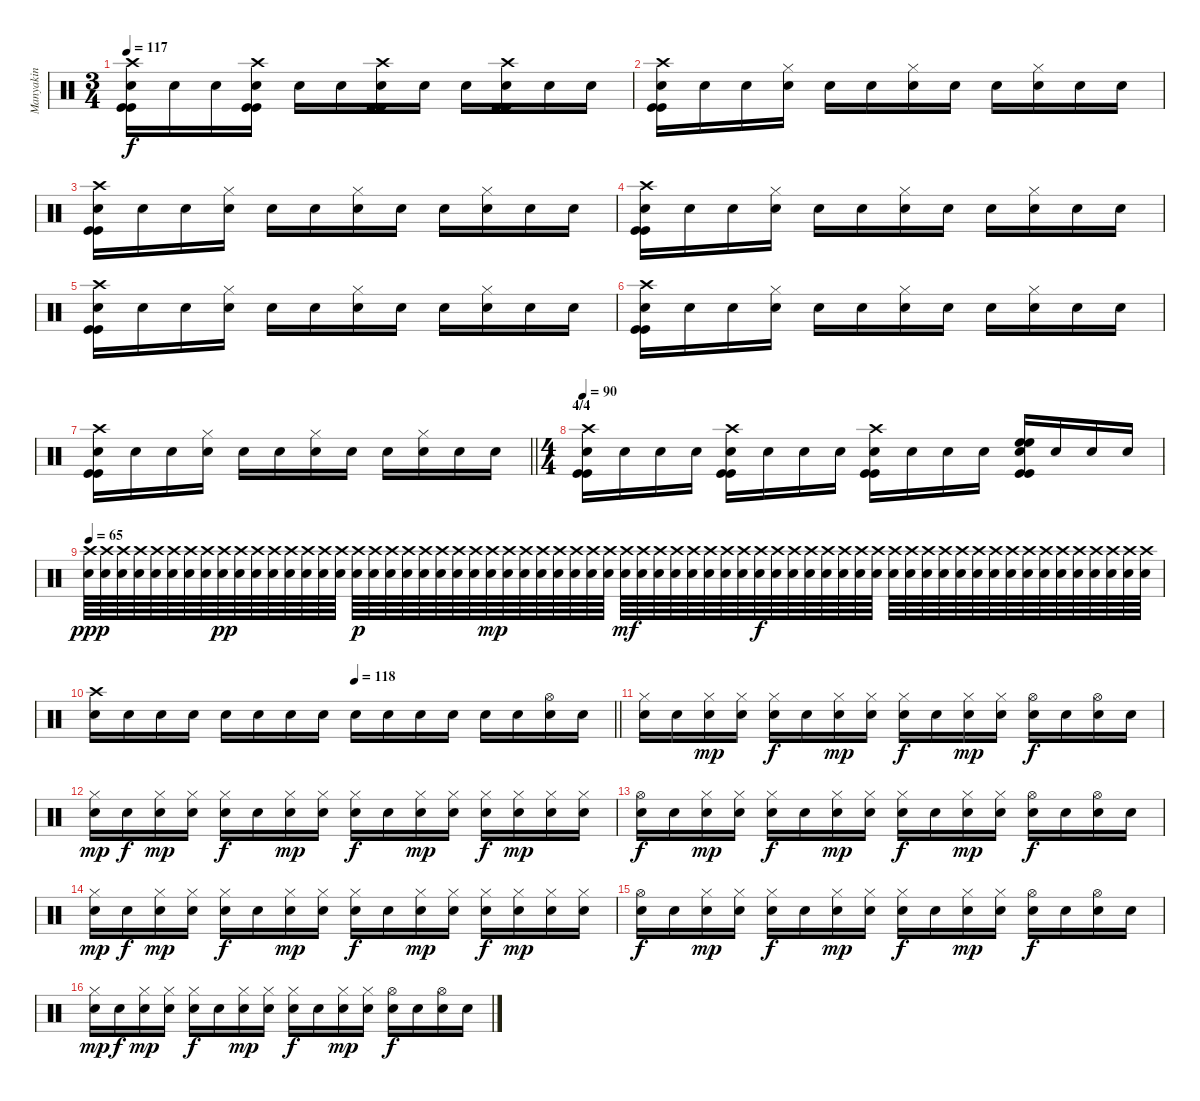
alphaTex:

\track ("Manyakin" "Manyakin") {instrument percussion}
\staff {score}
\articulation defaults
\ts (3 4)
\tempo 117
\clef neutral
\ks c
("Crash high (hit)" "Kick (hit)" "Kick (hit)" "Snare (hit)"{x}).16{dy f} "Snare (hit)"{x}.16 "Snare (hit)"{x}.16 ("Crash high (hit)" "Kick (hit)" "Kick (hit)" "Snare (hit)"{x}).16 "Snare (hit)"{x}.16 "Snare (hit)"{x}.16 ("Crash high (hit)" "Kick (hit)" "Kick (hit)" "Snare (hit)"{x}).16 "Snare (hit)"{x}.16 "Snare (hit)"{x}.16 ("Crash high (hit)" "Kick (hit)" "Kick (hit)" "Snare (hit)"{x}).16 "Snare (hit)"{x}.16 "Snare (hit)"{x}.16 |
("Crash high (hit)" "Kick (hit)" "Kick (hit)" "Snare (hit)"{x}).16 "Snare (hit)"{x}.16 "Snare (hit)"{x}.16 ("Hi-Hat (closed)" "Snare (hit)"{x}).16 "Snare (hit)"{x}.16 "Snare (hit)"{x}.16 ("Hi-Hat (closed)" "Snare (hit)"{x}).16 "Snare (hit)"{x}.16 "Snare (hit)"{x}.16 ("Hi-Hat (closed)" "Snare (hit)"{x}).16 "Snare (hit)"{x}.16 "Snare (hit)"{x}.16 |
("Crash high (hit)" "Kick (hit)" "Kick (hit)" "Snare (hit)"{x}).16 "Snare (hit)"{x}.16 "Snare (hit)"{x}.16 ("Hi-Hat (closed)" "Snare (hit)"{x}).16 "Snare (hit)"{x}.16 "Snare (hit)"{x}.16 ("Hi-Hat (closed)" "Snare (hit)"{x}).16 "Snare (hit)"{x}.16 "Snare (hit)"{x}.16 ("Hi-Hat (closed)" "Snare (hit)"{x}).16 "Snare (hit)"{x}.16 "Snare (hit)"{x}.16 |
("Crash high (hit)" "Kick (hit)" "Kick (hit)" "Snare (hit)"{x}).16 "Snare (hit)"{x}.16 "Snare (hit)"{x}.16 ("Hi-Hat (closed)" "Snare (hit)"{x}).16 "Snare (hit)"{x}.16 "Snare (hit)"{x}.16 ("Hi-Hat (closed)" "Snare (hit)"{x}).16 "Snare (hit)"{x}.16 "Snare (hit)"{x}.16 ("Hi-Hat (closed)" "Snare (hit)"{x}).16 "Snare (hit)"{x}.16 "Snare (hit)"{x}.16 |
("Crash high (hit)" "Kick (hit)" "Kick (hit)" "Snare (hit)"{x}).16 "Snare (hit)"{x}.16 "Snare (hit)"{x}.16 ("Hi-Hat (closed)" "Snare (hit)"{x}).16 "Snare (hit)"{x}.16 "Snare (hit)"{x}.16 ("Hi-Hat (closed)" "Snare (hit)"{x}).16 "Snare (hit)"{x}.16 "Snare (hit)"{x}.16 ("Hi-Hat (closed)" "Snare (hit)"{x}).16 "Snare (hit)"{x}.16 "Snare (hit)"{x}.16 |
("Crash high (hit)" "Kick (hit)" "Kick (hit)" "Snare (hit)"{x}).16 "Snare (hit)"{x}.16 "Snare (hit)"{x}.16 ("Hi-Hat (closed)" "Snare (hit)"{x}).16 "Snare (hit)"{x}.16 "Snare (hit)"{x}.16 ("Hi-Hat (closed)" "Snare (hit)"{x}).16 "Snare (hit)"{x}.16 "Snare (hit)"{x}.16 ("Hi-Hat (closed)" "Snare (hit)"{x}).16 "Snare (hit)"{x}.16 "Snare (hit)"{x}.16 |
\barLineRight lightlight
("Crash high (hit)" "Kick (hit)" "Kick (hit)" "Snare (hit)"{x}).16 "Snare (hit)"{x}.16 "Snare (hit)"{x}.16 ("Hi-Hat (closed)" "Snare (hit)"{x}).16 "Snare (hit)"{x}.16 "Snare (hit)"{x}.16 ("Hi-Hat (closed)" "Snare (hit)"{x}).16 "Snare (hit)"{x}.16 "Snare (hit)"{x}.16 ("Hi-Hat (closed)" "Snare (hit)"{x}).16 "Snare (hit)"{x}.16 "Snare (hit)"{x}.16 |
\ts (4 4)
\section ("" "4/4")
\tempo 90
("Crash high (hit)" "Kick (hit)" "Kick (hit)" "Snare (hit)"{x}).16 "Snare (hit)"{x}.16 "Snare (hit)"{x}.16 "Snare (hit)"{x}.16 ("Crash high (hit)" "Kick (hit)" "Kick (hit)" "Snare (hit)"{x}).16 "Snare (hit)"{x}.16 "Snare (hit)"{x}.16 "Snare (hit)"{x}.16 ("Crash high (hit)" "Kick (hit)" "Kick (hit)" "Snare (hit)"{x}).16 "Snare (hit)"{x}.16 "Snare (hit)"{x}.16 "Snare (hit)"{x}.16 ("High Floor Tom (hit)" "High Floor Tom (hit)" "Kick (hit)" "Kick (hit)" "Snare (hit)"{x}).16 "Snare (hit)"{x}.16 "Snare (hit)"{x}.16 "Snare (hit)"{x}.16 |
\tempo 65
("Crash high (hit)" "Snare (hit)"{x}).64{dy ppp} ("Crash high (hit)" "Snare (hit)"{x}).64 ("Crash high (hit)" "Snare (hit)"{x}).64 ("Crash high (hit)" "Snare (hit)"{x}).64 ("Crash high (hit)" "Snare (hit)"{x}).64 ("Crash high (hit)" "Snare (hit)"{x}).64 ("Crash high (hit)" "Snare (hit)"{x}).64 ("Crash high (hit)" "Snare (hit)"{x}).64 ("Crash high (hit)" "Snare (hit)"{x}).64{dy pp} ("Crash high (hit)" "Snare (hit)"{x}).64 ("Crash high (hit)" "Snare (hit)"{x}).64 ("Crash high (hit)" "Snare (hit)"{x}).64 ("Crash high (hit)" "Snare (hit)"{x}).64 ("Crash high (hit)" "Snare (hit)"{x}).64 ("Crash high (hit)" "Snare (hit)"{x}).64 ("Crash high (hit)" "Snare (hit)"{x}).64 ("Crash high (hit)" "Snare (hit)"{x}).64{dy p} ("Crash high (hit)" "Snare (hit)"{x}).64 ("Crash high (hit)" "Snare (hit)"{x}).64 ("Crash high (hit)" "Snare (hit)"{x}).64 ("Crash high (hit)" "Snare (hit)"{x}).64 ("Crash high (hit)" "Snare (hit)"{x}).64 ("Crash high (hit)" "Snare (hit)"{x}).64 ("Crash high (hit)" "Snare (hit)"{x}).64 ("Crash high (hit)" "Snare (hit)"{x}).64{dy mp} ("Crash high (hit)" "Snare (hit)"{x}).64 ("Crash high (hit)" "Snare (hit)"{x}).64 ("Crash high (hit)" "Snare (hit)"{x}).64 ("Crash high (hit)" "Snare (hit)"{x}).64 ("Crash high (hit)" "Snare (hit)"{x}).64 ("Crash high (hit)" "Snare (hit)"{x}).64 ("Crash high (hit)" "Snare (hit)"{x}).64 ("Crash high (hit)" "Snare (hit)"{x}).64{dy mf} ("Crash high (hit)" "Snare (hit)"{x}).64 ("Crash high (hit)" "Snare (hit)"{x}).64 ("Crash high (hit)" "Snare (hit)"{x}).64 ("Crash high (hit)" "Snare (hit)"{x}).64 ("Crash high (hit)" "Snare (hit)"{x}).64 ("Crash high (hit)" "Snare (hit)"{x}).64 ("Crash high (hit)" "Snare (hit)"{x}).64 ("Crash high (hit)" "Snare (hit)"{x}).64{dy f} ("Crash high (hit)" "Snare (hit)"{x}).64 ("Crash high (hit)" "Snare (hit)"{x}).64 ("Crash high (hit)" "Snare (hit)"{x}).64 ("Crash high (hit)" "Snare (hit)"{x}).64 ("Crash high (hit)" "Snare (hit)"{x}).64 ("Crash high (hit)" "Snare (hit)"{x}).64 ("Crash high (hit)" "Snare (hit)"{x}).64 ("Crash high (hit)" "Snare (hit)"{x}).64 ("Crash high (hit)" "Snare (hit)"{x}).64 ("Crash high (hit)" "Snare (hit)"{x}).64 ("Crash high (hit)" "Snare (hit)"{x}).64 ("Crash high (hit)" "Snare (hit)"{x}).64 ("Crash high (hit)" "Snare (hit)"{x}).64 ("Crash high (hit)" "Snare (hit)"{x}).64 ("Crash high (hit)" "Snare (hit)"{x}).64 ("Crash high (hit)" "Snare (hit)"{x}).64 ("Crash high (hit)" "Snare (hit)"{x}).64 ("Crash high (hit)" "Snare (hit)"{x}).64 ("Crash high (hit)" "Snare (hit)"{x}).64 ("Crash high (hit)" "Snare (hit)"{x}).64 ("Crash high (hit)" "Snare (hit)"{x}).64 ("Crash high (hit)" "Snare (hit)"{x}).64 ("Crash high (hit)" "Snare (hit)"{x}).64 |
\tempo (118 0.5)
\barLineRight lightlight
("Crash high (hit)" "Snare (hit)"{x}).16 "Snare (hit)"{x}.16 "Snare (hit)"{x}.16 "Snare (hit)"{x}.16 "Snare (hit)"{x}.16 "Snare (hit)"{x}.16 "Snare (hit)"{x}.16 "Snare (hit)"{x}.16 "Snare (hit)"{x}.16 "Snare (hit)"{x}.16 "Snare (hit)"{x}.16 "Snare (hit)"{x}.16 "Snare (hit)"{x}.16 "Snare (hit)"{x}.16 ("Hi-Hat (open)" "Snare (hit)"{x}).16 "Snare (hit)"{x}.16 |
("Hi-Hat (closed)" "Snare (hit)"{x}).16 "Snare (hit)"{x}.16 ("Hi-Hat (closed)" "Snare (hit)"{x}).16{dy mp} ("Hi-Hat (closed)" "Snare (hit)"{x}).16 ("Hi-Hat (closed)" "Snare (hit)"{x}).16{dy f} "Snare (hit)"{x}.16 ("Hi-Hat (closed)" "Snare (hit)"{x}).16{dy mp} ("Hi-Hat (closed)" "Snare (hit)"{x}).16 ("Hi-Hat (closed)" "Snare (hit)"{x}).16{dy f} "Snare (hit)"{x}.16 ("Hi-Hat (closed)" "Snare (hit)"{x}).16{dy mp} ("Hi-Hat (closed)" "Snare (hit)"{x}).16 ("Hi-Hat (open)" "Snare (hit)"{x}).16{dy f} "Snare (hit)"{x}.16 ("Hi-Hat (open)" "Snare (hit)"{x}).16 "Snare (hit)"{x}.16 |
("Hi-Hat (closed)" "Snare (hit)"{x}).16{dy mp} "Snare (hit)"{x}.16{dy f} ("Hi-Hat (closed)" "Snare (hit)"{x}).16{dy mp} ("Hi-Hat (closed)" "Snare (hit)"{x}).16 ("Hi-Hat (closed)" "Snare (hit)"{x}).16{dy f} "Snare (hit)"{x}.16 ("Hi-Hat (closed)" "Snare (hit)"{x}).16{dy mp} ("Hi-Hat (closed)" "Snare (hit)"{x}).16 ("Hi-Hat (closed)" "Snare (hit)"{x}).16{dy f} "Snare (hit)"{x}.16 ("Hi-Hat (closed)" "Snare (hit)"{x}).16{dy mp} ("Hi-Hat (closed)" "Snare (hit)"{x}).16 ("Hi-Hat (closed)" "Snare (hit)"{x}).16{dy f} ("Hi-Hat (closed)" "Snare (hit)"{x}).16{dy mp} ("Hi-Hat (closed)" "Snare (hit)"{x}).16 ("Hi-Hat (closed)" "Snare (hit)"{x}).16 |
("Hi-Hat (open)" "Snare (hit)"{x}).16{dy f} "Snare (hit)"{x}.16 ("Hi-Hat (closed)" "Snare (hit)"{x}).16{dy mp} ("Hi-Hat (closed)" "Snare (hit)"{x}).16 ("Hi-Hat (closed)" "Snare (hit)"{x}).16{dy f} "Snare (hit)"{x}.16 ("Hi-Hat (closed)" "Snare (hit)"{x}).16{dy mp} ("Hi-Hat (closed)" "Snare (hit)"{x}).16 ("Hi-Hat (closed)" "Snare (hit)"{x}).16{dy f} "Snare (hit)"{x}.16 ("Hi-Hat (closed)" "Snare (hit)"{x}).16{dy mp} ("Hi-Hat (closed)" "Snare (hit)"{x}).16 ("Hi-Hat (open)" "Snare (hit)"{x}).16{dy f} "Snare (hit)"{x}.16 ("Hi-Hat (open)" "Snare (hit)"{x}).16 "Snare (hit)"{x}.16 |
("Hi-Hat (closed)" "Snare (hit)"{x}).16{dy mp} "Snare (hit)"{x}.16{dy f} ("Hi-Hat (closed)" "Snare (hit)"{x}).16{dy mp} ("Hi-Hat (closed)" "Snare (hit)"{x}).16 ("Hi-Hat (closed)" "Snare (hit)"{x}).16{dy f} "Snare (hit)"{x}.16 ("Hi-Hat (closed)" "Snare (hit)"{x}).16{dy mp} ("Hi-Hat (closed)" "Snare (hit)"{x}).16 ("Hi-Hat (closed)" "Snare (hit)"{x}).16{dy f} "Snare (hit)"{x}.16 ("Hi-Hat (closed)" "Snare (hit)"{x}).16{dy mp} ("Hi-Hat (closed)" "Snare (hit)"{x}).16 ("Hi-Hat (closed)" "Snare (hit)"{x}).16{dy f} ("Hi-Hat (closed)" "Snare (hit)"{x}).16{dy mp} ("Hi-Hat (closed)" "Snare (hit)"{x}).16 ("Hi-Hat (closed)" "Snare (hit)"{x}).16 |
("Hi-Hat (open)" "Snare (hit)"{x}).16{dy f} "Snare (hit)"{x}.16 ("Hi-Hat (closed)" "Snare (hit)"{x}).16{dy mp} ("Hi-Hat (closed)" "Snare (hit)"{x}).16 ("Hi-Hat (closed)" "Snare (hit)"{x}).16{dy f} "Snare (hit)"{x}.16 ("Hi-Hat (closed)" "Snare (hit)"{x}).16{dy mp} ("Hi-Hat (closed)" "Snare (hit)"{x}).16 ("Hi-Hat (closed)" "Snare (hit)"{x}).16{dy f} "Snare (hit)"{x}.16 ("Hi-Hat (closed)" "Snare (hit)"{x}).16{dy mp} ("Hi-Hat (closed)" "Snare (hit)"{x}).16 ("Hi-Hat (open)" "Snare (hit)"{x}).16{dy f} "Snare (hit)"{x}.16 ("Hi-Hat (open)" "Snare (hit)"{x}).16 "Snare (hit)"{x}.16 |
("Hi-Hat (closed)" "Snare (hit)"{x}).16{dy mp} "Snare (hit)"{x}.16{dy f} ("Hi-Hat (closed)" "Snare (hit)"{x}).16{dy mp} ("Hi-Hat (closed)" "Snare (hit)"{x}).16 ("Hi-Hat (closed)" "Snare (hit)"{x}).16{dy f} "Snare (hit)"{x}.16 ("Hi-Hat (closed)" "Snare (hit)"{x}).16{dy mp} ("Hi-Hat (closed)" "Snare (hit)"{x}).16 ("Hi-Hat (closed)" "Snare (hit)"{x}).16{dy f} "Snare (hit)"{x}.16 ("Hi-Hat (closed)" "Snare (hit)"{x}).16{dy mp} ("Hi-Hat (closed)" "Snare (hit)"{x}).16 ("Hi-Hat (open)" "Snare (hit)"{x}).16{dy f} "Snare (hit)"{x}.16 ("Hi-Hat (open)" "Snare (hit)"{x}).16 "Snare (hit)"{x}.16
